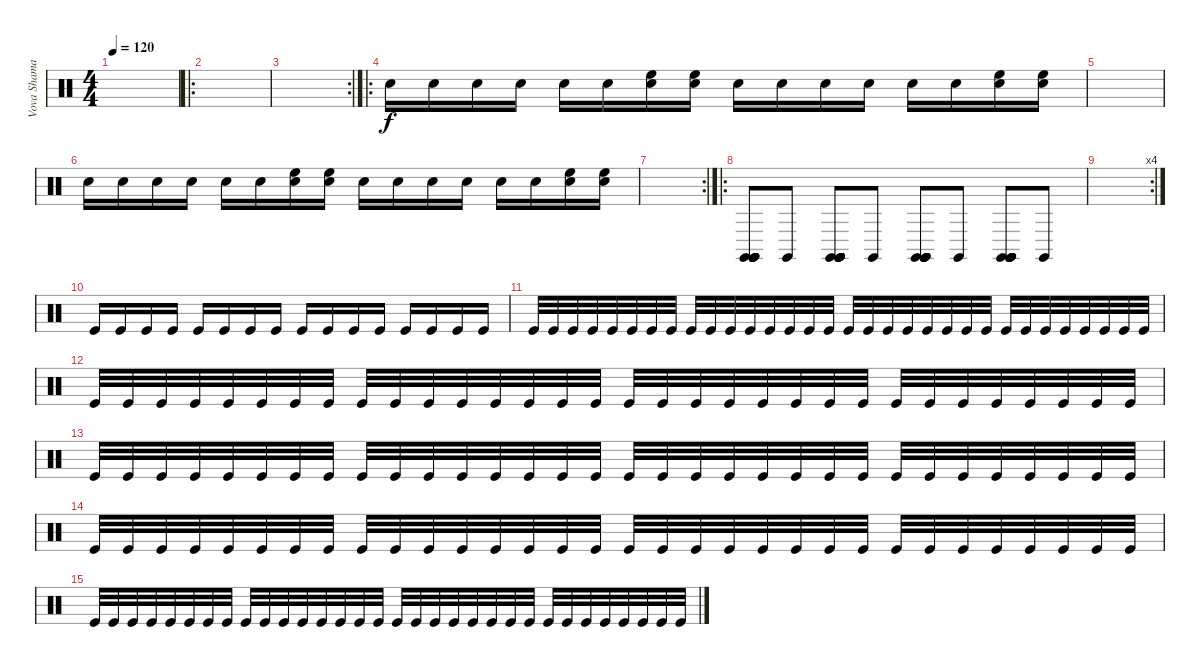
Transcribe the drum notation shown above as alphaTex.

\track ("Vova Shamay 2" "Vova Shama") {instrument percussion}
\staff {score}
\articulation defaults
\ts (4 4)
\tempo 120
\clef neutral
\ks c
|
\ro
|
\rc 2
|
\ro "Hand Clap (hit)".16 "Hand Clap (hit)".16 "Hand Clap (hit)".16 "Hand Clap (hit)".16 "Hand Clap (hit)".16 "Hand Clap (hit)".16
("High Floor Tom (hit)" "Hand Clap (hit)").16 ("High Floor Tom (hit)" "Hand Clap (hit)").16 "Hand Clap (hit)".16 "Hand Clap (hit)".16 "Hand Clap (hit)".16 "Hand Clap (hit)".16 "Hand Clap (hit)".16 "Hand Clap (hit)".16 ("High Floor Tom (hit)" "Hand Clap (hit)").16 ("High Floor Tom (hit)" "Hand Clap (hit)").16 |
|
"Hand Clap (hit)".16 "Hand Clap (hit)".16 "Hand Clap (hit)".16 "Hand Clap (hit)".16 "Hand Clap (hit)".16 "Hand Clap (hit)".16 ("High Floor Tom (hit)" "Hand Clap (hit)").16 ("High Floor Tom (hit)" "Hand Clap (hit)").16 "Hand Clap (hit)".16 "Hand Clap (hit)".16 "Hand Clap (hit)".16 "Hand Clap (hit)".16 "Hand Clap (hit)".16 "Hand Clap (hit)".16 ("High Floor Tom (hit)" "Hand Clap (hit)").16 ("High Floor Tom (hit)" "Hand Clap (hit)").16 |
\rc 2
|
\ro
("Claves (hit)" "Claves (hit)" "Claves (hit)" "Claves (hit)" "Claves (hit)" "Claves (hit)").8 "Claves (hit)".8 ("Claves (hit)" "Claves (hit)" "Claves (hit)" "Claves (hit)" "Claves (hit)" "Claves (hit)").8 "Claves (hit)".8 ("Claves (hit)" "Claves (hit)" "Claves (hit)" "Claves (hit)" "Claves (hit)" "Claves (hit)").8 "Claves (hit)".8 ("Claves (hit)" "Claves (hit)" "Claves (hit)" "Claves (hit)" "Claves (hit)" "Claves (hit)").8 "Claves (hit)".8 |
\rc 4
|
"Kick (hit)".16 "Kick (hit)".16 "Kick (hit)".16 "Kick (hit)".16 "Kick (hit)".16 "Kick (hit)".16 "Kick (hit)".16 "Kick (hit)".16 "Kick (hit)".16 "Kick (hit)".16 "Kick (hit)".16 "Kick (hit)".16 "Kick (hit)".16 "Kick (hit)".16 "Kick (hit)".16 "Kick (hit)".16 |
"Kick (hit)".32 "Kick (hit)".32 "Kick (hit)".32 "Kick (hit)".32 "Kick (hit)".32 "Kick (hit)".32 "Kick (hit)".32 "Kick (hit)".32 "Kick (hit)".32 "Kick (hit)".32 "Kick (hit)".32 "Kick (hit)".32 "Kick (hit)".32 "Kick (hit)".32 "Kick (hit)".32 "Kick (hit)".32 "Kick (hit)".32 "Kick (hit)".32 "Kick (hit)".32 "Kick (hit)".32 "Kick (hit)".32 "Kick (hit)".32 "Kick (hit)".32 "Kick (hit)".32 "Kick (hit)".32 "Kick (hit)".32 "Kick (hit)".32 "Kick (hit)".32 "Kick (hit)".32 "Kick (hit)".32 "Kick (hit)".32 "Kick (hit)".32 |
"Kick (hit)".32 "Kick (hit)".32 "Kick (hit)".32 "Kick (hit)".32 "Kick (hit)".32 "Kick (hit)".32 "Kick (hit)".32 "Kick (hit)".32 "Kick (hit)".32 "Kick (hit)".32 "Kick (hit)".32 "Kick (hit)".32 "Kick (hit)".32 "Kick (hit)".32 "Kick (hit)".32 "Kick (hit)".32 "Kick (hit)".32 "Kick (hit)".32 "Kick (hit)".32 "Kick (hit)".32 "Kick (hit)".32 "Kick (hit)".32 "Kick (hit)".32 "Kick (hit)".32 "Kick (hit)".32 "Kick (hit)".32 "Kick (hit)".32 "Kick (hit)".32 "Kick (hit)".32 "Kick (hit)".32 "Kick (hit)".32 "Kick (hit)".32 |
"Kick (hit)".32 "Kick (hit)".32 "Kick (hit)".32 "Kick (hit)".32 "Kick (hit)".32 "Kick (hit)".32 "Kick (hit)".32 "Kick (hit)".32 "Kick (hit)".32 "Kick (hit)".32 "Kick (hit)".32 "Kick (hit)".32 "Kick (hit)".32 "Kick (hit)".32 "Kick (hit)".32 "Kick (hit)".32 "Kick (hit)".32 "Kick (hit)".32 "Kick (hit)".32 "Kick (hit)".32 "Kick (hit)".32 "Kick (hit)".32 "Kick (hit)".32 "Kick (hit)".32 "Kick (hit)".32 "Kick (hit)".32 "Kick (hit)".32 "Kick (hit)".32 "Kick (hit)".32 "Kick (hit)".32 "Kick (hit)".32 "Kick (hit)".32 |
"Kick (hit)".32 "Kick (hit)".32 "Kick (hit)".32 "Kick (hit)".32 "Kick (hit)".32 "Kick (hit)".32 "Kick (hit)".32 "Kick (hit)".32 "Kick (hit)".32 "Kick (hit)".32 "Kick (hit)".32 "Kick (hit)".32 "Kick (hit)".32 "Kick (hit)".32 "Kick (hit)".32 "Kick (hit)".32 "Kick (hit)".32 "Kick (hit)".32 "Kick (hit)".32 "Kick (hit)".32 "Kick (hit)".32 "Kick (hit)".32 "Kick (hit)".32 "Kick (hit)".32 "Kick (hit)".32 "Kick (hit)".32 "Kick (hit)".32 "Kick (hit)".32 "Kick (hit)".32 "Kick (hit)".32 "Kick (hit)".32 "Kick (hit)".32 |
"Kick (hit)".32 "Kick (hit)".32 "Kick (hit)".32 "Kick (hit)".32 "Kick (hit)".32 "Kick (hit)".32 "Kick (hit)".32 "Kick (hit)".32 "Kick (hit)".32 "Kick (hit)".32 "Kick (hit)".32 "Kick (hit)".32 "Kick (hit)".32 "Kick (hit)".32 "Kick (hit)".32 "Kick (hit)".32 "Kick (hit)".32 "Kick (hit)".32 "Kick (hit)".32 "Kick (hit)".32 "Kick (hit)".32 "Kick (hit)".32 "Kick (hit)".32 "Kick (hit)".32 "Kick (hit)".32 "Kick (hit)".32 "Kick (hit)".32 "Kick (hit)".32 "Kick (hit)".32 "Kick (hit)".32 "Kick (hit)".32 "Kick (hit)".32
